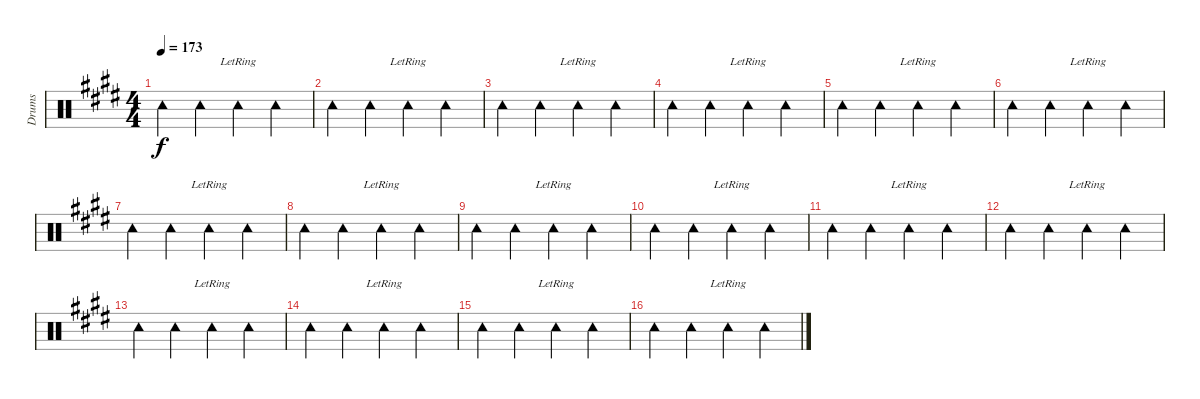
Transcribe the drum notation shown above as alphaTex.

\track ("Drums" "Drums") {instrument percussion}
\staff {score}
\articulation defaults
\ts (4 4)
\tempo 173
\clef neutral
\ks e "Tambourine (hit)".4{dy f} "Tambourine (hit)".4 "Tambourine (hit)"{lr}.4 "Tambourine (hit)".4
|
"Tambourine (hit)".4 "Tambourine (hit)".4 "Tambourine (hit)"{lr}.4 "Tambourine (hit)".4 |
"Tambourine (hit)".4 "Tambourine (hit)".4 "Tambourine (hit)"{lr}.4 "Tambourine (hit)".4 |
"Tambourine (hit)".4 "Tambourine (hit)".4 "Tambourine (hit)"{lr}.4 "Tambourine (hit)".4 |
"Tambourine (hit)".4 "Tambourine (hit)".4 "Tambourine (hit)"{lr}.4 "Tambourine (hit)".4 |
"Tambourine (hit)".4 "Tambourine (hit)".4 "Tambourine (hit)"{lr}.4 "Tambourine (hit)".4 |
"Tambourine (hit)".4 "Tambourine (hit)".4 "Tambourine (hit)"{lr}.4 "Tambourine (hit)".4 |
"Tambourine (hit)".4 "Tambourine (hit)".4 "Tambourine (hit)"{lr}.4 "Tambourine (hit)".4 |
"Tambourine (hit)".4 "Tambourine (hit)".4 "Tambourine (hit)"{lr}.4 "Tambourine (hit)".4 |
"Tambourine (hit)".4 "Tambourine (hit)".4 "Tambourine (hit)"{lr}.4 "Tambourine (hit)".4 |
"Tambourine (hit)".4 "Tambourine (hit)".4 "Tambourine (hit)"{lr}.4 "Tambourine (hit)".4 |
"Tambourine (hit)".4 "Tambourine (hit)".4 "Tambourine (hit)"{lr}.4 "Tambourine (hit)".4 |
"Tambourine (hit)".4 "Tambourine (hit)".4 "Tambourine (hit)"{lr}.4 "Tambourine (hit)".4 |
"Tambourine (hit)".4 "Tambourine (hit)".4 "Tambourine (hit)"{lr}.4 "Tambourine (hit)".4 |
"Tambourine (hit)".4 "Tambourine (hit)".4 "Tambourine (hit)"{lr}.4 "Tambourine (hit)".4 |
"Tambourine (hit)".4 "Tambourine (hit)".4 "Tambourine (hit)"{lr}.4 "Tambourine (hit)".4
